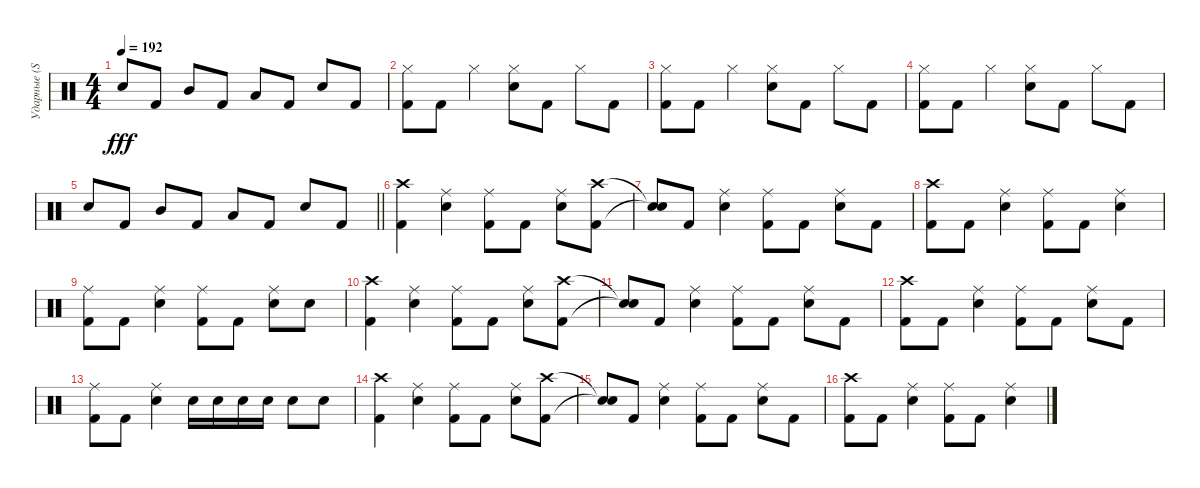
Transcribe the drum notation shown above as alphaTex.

\track ("Ударные (Steve Jocz)" "Ударные (S") {instrument percussion}
\staff {score}
\articulation defaults
\ts (4 4)
\tempo 192
\clef neutral
\ks c "Electric Snare (hit)".8{dy fff} "Kick (hit) 2".8 "Mid Tom (hit)".8 "Kick (hit) 2".8 "Low Tom (hit)".8 "Kick (hit) 2".8 "Electric Snare (hit)".8 "Kick (hit) 2".8
|
("Hi-Hat (closed)" "Kick (hit) 2").8 "Kick (hit) 2".8 "Hi-Hat (closed)".4 ("Hi-Hat (closed)" "Electric Snare (hit)").8 "Kick (hit) 2".8 "Hi-Hat (closed)".8 "Kick (hit) 2".8 |
("Hi-Hat (closed)" "Kick (hit) 2").8 "Kick (hit) 2".8 "Hi-Hat (closed)".4 ("Hi-Hat (closed)" "Electric Snare (hit)").8 "Kick (hit) 2".8 "Hi-Hat (closed)".8 "Kick (hit) 2".8 |
("Hi-Hat (closed)" "Kick (hit) 2").8 "Kick (hit) 2".8 "Hi-Hat (closed)".4 ("Hi-Hat (closed)" "Electric Snare (hit)").8 "Kick (hit) 2".8 "Hi-Hat (closed)".8 "Kick (hit) 2".8 |
\barLineRight lightlight "Electric Snare (hit)".8 "Kick (hit) 2".8 "Mid Tom (hit)".8 "Kick (hit) 2".8 "Low Tom (hit)".8 "Kick (hit) 2".8 "Electric Snare (hit)".8 "Kick (hit) 2".8
|
("Crash high (hit)" "Kick (hit) 2").4 ("Ride (middle)" "Electric Snare (hit)").4 ("Ride (middle)" "Kick (hit) 2").8 "Kick (hit) 2".8 ("Ride (middle)" "Electric Snare (hit)").8 ("Crash high (hit)" "Kick (hit) 2").8 |
("Snare (hit)"{t} "Snare (hit)"{t}).8 "Kick (hit) 2".8 ("Ride (middle)" "Electric Snare (hit)").4 ("Ride (middle)" "Kick (hit) 2").8 "Kick (hit) 2".8 ("Ride (middle)" "Electric Snare (hit)").8 "Kick (hit) 2".8 |
("Crash high (hit)" "Kick (hit) 2").8 "Kick (hit) 2".8 ("Ride (middle)" "Electric Snare (hit)").4 ("Ride (middle)" "Kick (hit) 2").8 "Kick (hit) 2".8 ("Ride (middle)" "Electric Snare (hit)").4 |
("Ride (middle)" "Kick (hit) 2").8 "Kick (hit) 2".8 ("Ride (middle)" "Electric Snare (hit)").4 ("Ride (middle)" "Kick (hit) 2").8 "Kick (hit) 2".8 ("Ride (middle)" "Electric Snare (hit)").8 "Electric Snare (hit)".8 |
("Crash high (hit)" "Kick (hit) 2").4 ("Ride (middle)" "Electric Snare (hit)").4 ("Ride (middle)" "Kick (hit) 2").8 "Kick (hit) 2".8 ("Ride (middle)" "Electric Snare (hit)").8 ("Crash high (hit)" "Kick (hit) 2").8 |
("Snare (hit)"{t} "Snare (hit)"{t}).8 "Kick (hit) 2".8 ("Ride (middle)" "Electric Snare (hit)").4 ("Ride (middle)" "Kick (hit) 2").8 "Kick (hit) 2".8 ("Ride (middle)" "Electric Snare (hit)").8 "Kick (hit) 2".8 |
("Crash high (hit)" "Kick (hit) 2").8 "Kick (hit) 2".8 ("Ride (middle)" "Electric Snare (hit)").4 ("Ride (middle)" "Kick (hit) 2").8 "Kick (hit) 2".8 ("Ride (middle)" "Electric Snare (hit)").8 "Kick (hit) 2".8 |
("Ride (middle)" "Kick (hit) 2").8 "Kick (hit) 2".8 ("Ride (middle)" "Electric Snare (hit)").4 "Electric Snare (hit)".16 "Electric Snare (hit)".16 "Electric Snare (hit)".16 "Electric Snare (hit)".16 "Electric Snare (hit)".8 "Electric Snare (hit)".8 |
("Crash high (hit)" "Kick (hit) 2").4 ("Ride (middle)" "Electric Snare (hit)").4 ("Ride (middle)" "Kick (hit) 2").8 "Kick (hit) 2".8 ("Ride (middle)" "Electric Snare (hit)").8 ("Crash high (hit)" "Kick (hit) 2").8 |
("Snare (hit)"{t} "Snare (hit)"{t}).8 "Kick (hit) 2".8 ("Ride (middle)" "Electric Snare (hit)").4 ("Ride (middle)" "Kick (hit) 2").8 "Kick (hit) 2".8 ("Ride (middle)" "Electric Snare (hit)").8 "Kick (hit) 2".8 |
("Crash high (hit)" "Kick (hit) 2").8 "Kick (hit) 2".8 ("Ride (middle)" "Electric Snare (hit)").4 ("Ride (middle)" "Kick (hit) 2").8 "Kick (hit) 2".8 ("Ride (middle)" "Electric Snare (hit)").4
